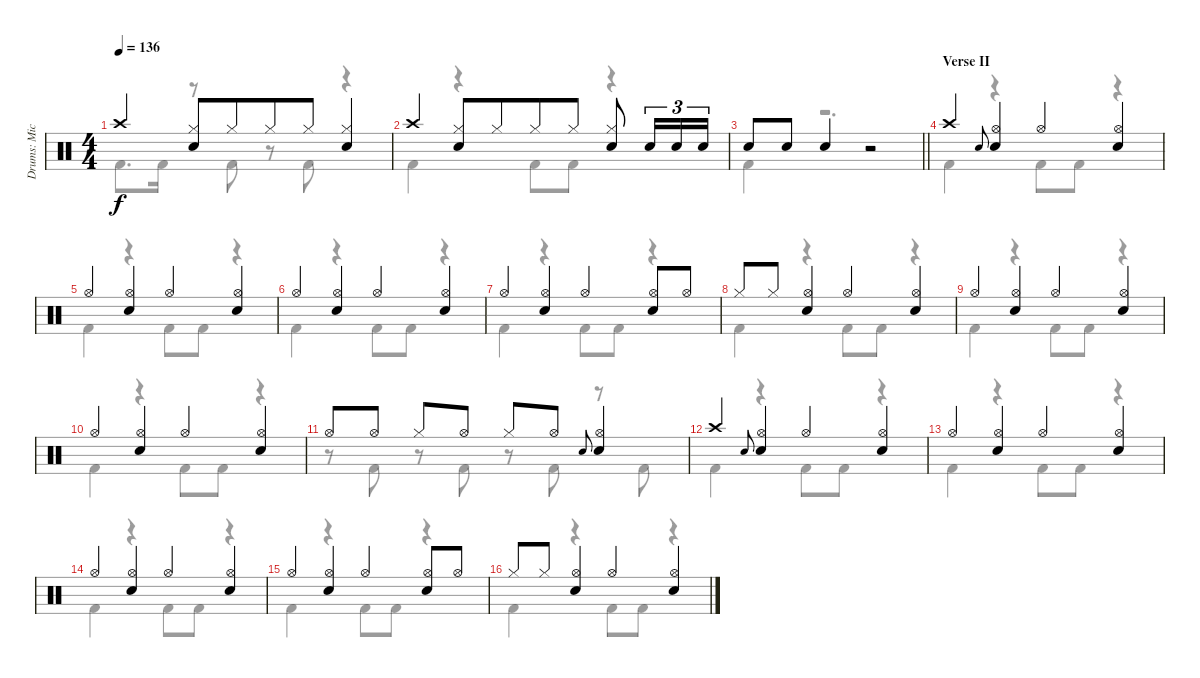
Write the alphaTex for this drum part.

\track ("Drums: Mick" "Drums: Mic") {instrument percussion}
\staff {score}
\articulation defaults
\voice
\ts (4 4)
\tempo 136
\clef neutral
\ks c "Crash high (hit)".4{dy f}
("Hi-Hat (closed)" "Snare (hit) 2").8 "Hi-Hat (closed)".8{beam merge} "Hi-Hat (closed)".8 "Hi-Hat (closed)".8{beam merge} ("Hi-Hat (closed)" "Snare (hit) 2").4 |
"Crash high (hit)".4 ("Hi-Hat (closed)" "Snare (hit) 2").8 "Hi-Hat (closed)".8{beam merge} "Hi-Hat (closed)".8 "Hi-Hat (closed)".8 ("Hi-Hat (closed)" "Snare (hit) 2").8 "Snare (hit) 2".16{tu (3 2)} "Snare (hit) 2".16{tu (3 2)} "Snare (hit) 2".16{tu (3 2)} |
\barLineRight lightlight "Snare (hit) 2".8 "Snare (hit) 2".8 "Snare (hit) 2".4
r.2 |
\section ("" "Verse II")
"Crash high (hit)".4 "Electric Snare (hit)".8{gr onbeat} ("Hi-Hat (open)" "Snare (hit) 2").4 "Hi-Hat (open)".4 ("Hi-Hat (open)" "Snare (hit) 2").4 |
"Hi-Hat (open)".4 ("Hi-Hat (open)" "Snare (hit) 2").4 "Hi-Hat (open)".4 ("Hi-Hat (open)" "Snare (hit) 2").4 |
"Hi-Hat (open)".4 ("Hi-Hat (open)" "Snare (hit) 2").4 "Hi-Hat (open)".4 ("Hi-Hat (open)" "Snare (hit) 2").4 |
"Hi-Hat (open)".4 ("Hi-Hat (open)" "Snare (hit) 2").4 "Hi-Hat (open)".4 ("Hi-Hat (open)" "Snare (hit) 2").8 "Hi-Hat (open)".8 |
"Hi-Hat (closed)".8 "Hi-Hat (closed)".8 ("Hi-Hat (open)" "Snare (hit) 2").4 "Hi-Hat (open)".4 ("Hi-Hat (open)" "Snare (hit) 2").4 |
"Hi-Hat (open)".4 ("Hi-Hat (open)" "Snare (hit) 2").4 "Hi-Hat (open)".4 ("Hi-Hat (open)" "Snare (hit) 2").4 |
"Hi-Hat (open)".4 ("Hi-Hat (open)" "Snare (hit) 2").4 "Hi-Hat (open)".4 ("Hi-Hat (open)" "Snare (hit) 2").4 |
"Hi-Hat (open)".8 "Hi-Hat (open)".8 "Hi-Hat (closed)".8 "Hi-Hat (open)".8 "Hi-Hat (closed)".8 "Hi-Hat (open)".8 "Electric Snare (hit)".8{gr onbeat} ("Hi-Hat (open)" "Snare (hit) 2").4 |
"Crash high (hit)".4 "Electric Snare (hit)".8{gr onbeat} ("Hi-Hat (open)" "Snare (hit) 2").4 "Hi-Hat (open)".4 ("Hi-Hat (open)" "Snare (hit) 2").4 |
"Hi-Hat (open)".4 ("Hi-Hat (open)" "Snare (hit) 2").4 "Hi-Hat (open)".4 ("Hi-Hat (open)" "Snare (hit) 2").4 |
"Hi-Hat (open)".4 ("Hi-Hat (open)" "Snare (hit) 2").4 "Hi-Hat (open)".4 ("Hi-Hat (open)" "Snare (hit) 2").4 |
"Hi-Hat (open)".4 ("Hi-Hat (open)" "Snare (hit) 2").4 "Hi-Hat (open)".4 ("Hi-Hat (open)" "Snare (hit) 2").8 "Hi-Hat (open)".8 |
"Hi-Hat (closed)".8 "Hi-Hat (closed)".8 ("Hi-Hat (open)" "Snare (hit) 2").4 "Hi-Hat (open)".4 ("Hi-Hat (open)" "Snare (hit) 2").4
\voice
\clef neutral
\ottava regular
\simile none
\ks c "Kick (hit) 2".8{d dy f} "Kick (hit) 2".16
r.8 "Kick (hit) 2".8 r.8 "Kick (hit) 2".8 r.4 |
"Kick (hit) 2".4 r.4 "Kick (hit) 2".8 "Kick (hit) 2".8 r.4 |
\barLineRight lightlight "Kick (hit) 2".4
r.2{d} |
"Kick (hit) 2".4 r.4 "Kick (hit) 2".8 "Kick (hit) 2".8 r.4 |
"Kick (hit) 2".4 r.4 "Kick (hit) 2".8 "Kick (hit) 2".8 r.4 |
"Kick (hit) 2".4 r.4 "Kick (hit) 2".8 "Kick (hit) 2".8 r.4 |
"Kick (hit) 2".4 r.4 "Kick (hit) 2".8 "Kick (hit) 2".8 r.4 |
"Kick (hit) 2".4 r.4 "Kick (hit) 2".8 "Kick (hit) 2".8 r.4 |
"Kick (hit) 2".4 r.4 "Kick (hit) 2".8 "Kick (hit) 2".8 r.4 |
"Kick (hit) 2".4 r.4 "Kick (hit) 2".8 "Kick (hit) 2".8 r.4 |
r.8 "Kick (hit) 2".8 r.8 "Kick (hit) 2".8 r.8 "Kick (hit) 2".8 r.8 "Kick (hit) 2".8 |
"Kick (hit) 2".4 r.4 "Kick (hit) 2".8 "Kick (hit) 2".8 r.4 |
"Kick (hit) 2".4 r.4 "Kick (hit) 2".8 "Kick (hit) 2".8 r.4 |
"Kick (hit) 2".4 r.4 "Kick (hit) 2".8 "Kick (hit) 2".8 r.4 |
"Kick (hit) 2".4 r.4 "Kick (hit) 2".8 "Kick (hit) 2".8 r.4 |
"Kick (hit) 2".4 r.4 "Kick (hit) 2".8 "Kick (hit) 2".8 r.4
